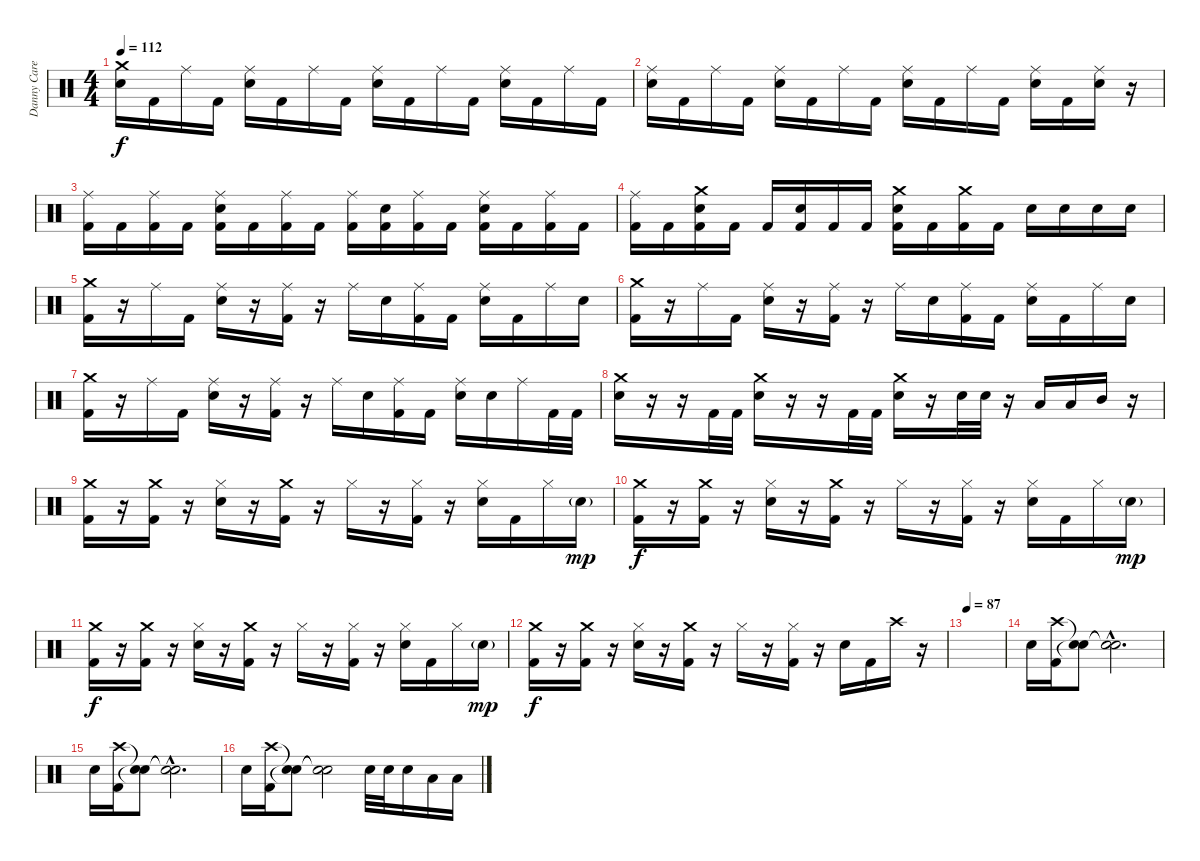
\track ("Danny Carey" "Danny Care") {instrument percussion}
\staff {score}
\articulation defaults
\ts (4 4)
\tempo 112
\clef neutral
\ks c
("Crash medium (hit)" "Snare (hit) 2").16{dy f} "Kick (hit) 2".16 "Ride (middle)".16 "Kick (hit) 2".16 ("Ride (middle)" "Snare (hit) 2").16 "Kick (hit) 2".16 "Ride (middle)".16 "Kick (hit) 2".16 ("Ride (middle)" "Snare (hit) 2").16 "Kick (hit) 2".16 "Ride (middle)".16 "Kick (hit) 2".16 ("Ride (middle)" "Snare (hit) 2").16 "Kick (hit) 2".16 "Ride (middle)".16 "Kick (hit) 2".16 |
("Ride (middle)" "Snare (hit) 2").16 "Kick (hit) 2".16 "Ride (middle)".16 "Kick (hit) 2".16 ("Ride (middle)" "Snare (hit) 2").16 "Kick (hit) 2".16 "Ride (middle)".16 "Kick (hit) 2".16 ("Ride (middle)" "Snare (hit) 2").16 "Kick (hit) 2".16 "Ride (middle)".16 "Kick (hit) 2".16 ("Ride (middle)" "Snare (hit) 2").16 "Kick (hit) 2".16 ("Ride (middle)" "Snare (hit) 2").16 r.16 |
("Ride (middle)" "Kick (hit) 2").16 "Kick (hit) 2".16 ("Ride (middle)" "Kick (hit) 2").16 "Kick (hit) 2".16 ("Ride (middle)" "Snare (hit) 2" "Kick (hit) 2").16 "Kick (hit) 2".16 ("Ride (middle)" "Kick (hit) 2").16 "Kick (hit) 2".16 ("Ride (middle)" "Kick (hit) 2").16 ("Snare (hit) 2" "Kick (hit) 2").16 ("Ride (middle)" "Kick (hit) 2").16 "Kick (hit) 2".16 ("Ride (middle)" "Snare (hit) 2" "Kick (hit) 2").16 "Kick (hit) 2".16 ("Ride (middle)" "Kick (hit) 2").16 "Kick (hit) 2".16 |
("Ride (middle)" "Kick (hit) 2").16 "Kick (hit) 2".16 ("Crash medium (hit)" "Snare (hit) 2" "Kick (hit) 2").16 "Kick (hit) 2".16 "Kick (hit) 2".16 ("Snare (hit) 2" "Kick (hit) 2").16 "Kick (hit) 2".16 "Kick (hit) 2".16 ("Crash medium (hit)" "Snare (hit) 2" "Kick (hit) 2").16 "Kick (hit) 2".16 ("Crash medium (hit)" "Kick (hit) 2").16 "Kick (hit) 2".16 "Snare (hit) 2".16 "Snare (hit) 2".16 "Snare (hit) 2".16 "Snare (hit) 2".16 |
("Crash medium (hit)" "Kick (hit) 2").16 r.16 "Ride (middle)".16 "Kick (hit) 2".16 ("Ride (middle)" "Snare (hit) 2").16 r.16 ("Ride (middle)" "Kick (hit) 2").16 r.16 "Ride (middle)".16 "Snare (hit) 2".16 ("Ride (middle)" "Kick (hit) 2").16 "Kick (hit) 2".16 ("Ride (middle)" "Snare (hit) 2").16 "Kick (hit) 2".16 "Ride (middle)".16 "Snare (hit) 2".16 |
("Crash medium (hit)" "Kick (hit) 2").16 r.16 "Ride (middle)".16 "Kick (hit) 2".16 ("Ride (middle)" "Snare (hit) 2").16 r.16 ("Ride (middle)" "Kick (hit) 2").16 r.16 "Ride (middle)".16 "Snare (hit) 2".16 ("Ride (middle)" "Kick (hit) 2").16 "Kick (hit) 2".16 ("Ride (middle)" "Snare (hit) 2").16 "Kick (hit) 2".16 "Ride (middle)".16 "Snare (hit) 2".16 |
("Crash medium (hit)" "Kick (hit) 2").16 r.16 "Ride (middle)".16 "Kick (hit) 2".16 ("Ride (middle)" "Snare (hit) 2").16 r.16 ("Ride (middle)" "Kick (hit) 2").16 r.16 "Ride (middle)".16 "Snare (hit) 2".16 ("Ride (middle)" "Kick (hit) 2").16 "Kick (hit) 2".16 ("Ride (middle)" "Snare (hit) 2").16 "Snare (hit) 2".16 "Ride (middle)".16 "Kick (hit) 2".32 "Kick (hit) 2".32 |
("Crash medium (hit)" "Snare (hit) 2").16 r.16 r.16 "Kick (hit) 2".32 "Kick (hit) 2".32 ("Crash medium (hit)" "Snare (hit) 2").16 r.16 r.16 "Kick (hit) 2".32 "Kick (hit) 2".32 ("Crash medium (hit)" "Snare (hit) 2").16 r.16 "Snare (hit) 2".32 "Snare (hit) 2".32 r.16 "Low Tom (hit)".16 "Low Tom (hit)".16 "Mid Tom (hit)".16 r.16 |
("Crash medium (hit)" "Kick (hit) 2").16 r.16 ("Crash medium (hit)" "Kick (hit) 2").16 r.16 ("Hi-Hat (closed)" "Snare (hit) 2").16 r.16 ("Crash medium (hit)" "Kick (hit) 2").16 r.16 "Hi-Hat (closed)".16 r.16 ("Hi-Hat (closed)" "Kick (hit) 2").16 r.16 ("Hi-Hat (closed)" "Snare (hit) 2").16 "Kick (hit) 2".16 "Hi-Hat (closed)".16 "Snare (hit) 2"{g}.16{dy mp} |
("Crash medium (hit)" "Kick (hit) 2").16{dy f} r.16 ("Crash medium (hit)" "Kick (hit) 2").16 r.16 ("Hi-Hat (closed)" "Snare (hit) 2").16 r.16 ("Crash medium (hit)" "Kick (hit) 2").16 r.16 "Hi-Hat (closed)".16 r.16 ("Hi-Hat (closed)" "Kick (hit) 2").16 r.16 ("Hi-Hat (closed)" "Snare (hit) 2").16 "Kick (hit) 2".16 "Hi-Hat (closed)".16 "Snare (hit) 2"{g}.16{dy mp} |
("Crash medium (hit)" "Kick (hit) 2").16{dy f} r.16 ("Crash medium (hit)" "Kick (hit) 2").16 r.16 ("Hi-Hat (closed)" "Snare (hit) 2").16 r.16 ("Crash medium (hit)" "Kick (hit) 2").16 r.16 "Hi-Hat (closed)".16 r.16 ("Hi-Hat (closed)" "Kick (hit) 2").16 r.16 ("Hi-Hat (closed)" "Snare (hit) 2").16 "Kick (hit) 2".16 "Hi-Hat (closed)".16 "Snare (hit) 2"{g}.16{dy mp} |
("Crash medium (hit)" "Kick (hit) 2").16{dy f} r.16 ("Crash medium (hit)" "Kick (hit) 2").16 r.16 ("Hi-Hat (closed)" "Snare (hit) 2").16 r.16 ("Crash medium (hit)" "Kick (hit) 2").16 r.16 "Hi-Hat (closed)".16 r.16 ("Hi-Hat (closed)" "Kick (hit) 2").16 r.16 "Snare (hit) 2".16 "Kick (hit) 2".16 "Crash high (hit)".16 r.16 |
\tempo 87
|
"Snare (hit) 2".16 ("Crash high (hit)" "Kick (hit) 2").16 ("Snare (hit)"{t} "Snare (hit)"{t}).8 ("Snare (hit)"{hac t} "Snare (hit)"{hac t}).2{d} |
"Snare (hit) 2".16 ("Crash high (hit)" "Kick (hit) 2").16 ("Snare (hit)"{t} "Snare (hit)"{t}).8 ("Snare (hit)"{hac t} "Snare (hit)"{hac t}).2{d} |
"Snare (hit) 2".16 ("Crash high (hit)" "Kick (hit) 2").16 ("Snare (hit)"{t} "Snare (hit)"{t}).8 ("Snare (hit)"{t} "Snare (hit)"{t}).2 "Snare (hit) 2".32 "Snare (hit) 2".32 "Snare (hit) 2".16 "Low Floor Tom (hit)".16 "Low Floor Tom (hit)".16
